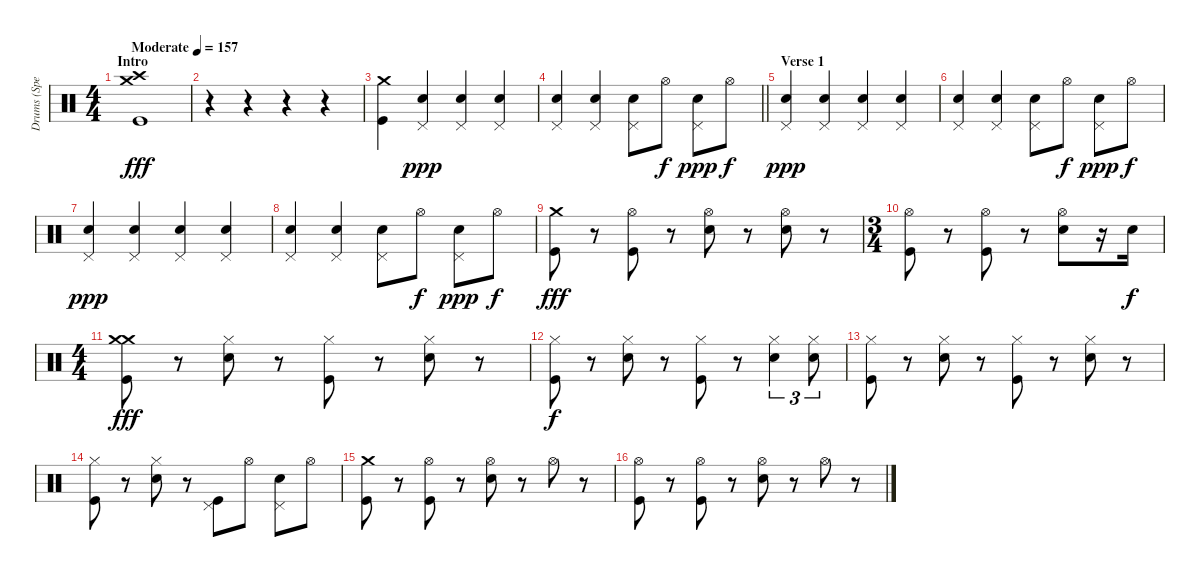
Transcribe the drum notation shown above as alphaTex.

\track ("Drums (Spencer Smith)" "Drums (Spe") {instrument percussion}
\staff {score}
\articulation defaults
\ts (4 4)
\section ("" "Intro")
\tempo (157 "Moderate")
\clef neutral
\ks c
("Crash medium (hit)" "Crash high (hit)" "Kick (hit)").1{dy fff} |
r.4 r.4 r.4 r.4 |
("Crash medium (hit)" "Kick (hit)").4 ("Electric Snare (hit)" "Pedal Hi-Hat (hit)").4{dy ppp} ("Electric Snare (hit)" "Pedal Hi-Hat (hit)").4 ("Electric Snare (hit)" "Pedal Hi-Hat (hit)").4 |
\barLineRight lightlight
("Electric Snare (hit)" "Pedal Hi-Hat (hit)").4 ("Electric Snare (hit)" "Pedal Hi-Hat (hit)").4 ("Electric Snare (hit)" "Pedal Hi-Hat (hit)").8 "Hi-Hat (open)".8{dy f} ("Electric Snare (hit)" "Pedal Hi-Hat (hit)").8{dy ppp} "Hi-Hat (open)".8{dy f} |
\section ("" "Verse 1")
("Electric Snare (hit)" "Pedal Hi-Hat (hit)").4{dy ppp} ("Electric Snare (hit)" "Pedal Hi-Hat (hit)").4 ("Electric Snare (hit)" "Pedal Hi-Hat (hit)").4 ("Electric Snare (hit)" "Pedal Hi-Hat (hit)").4 |
("Electric Snare (hit)" "Pedal Hi-Hat (hit)").4 ("Electric Snare (hit)" "Pedal Hi-Hat (hit)").4 ("Electric Snare (hit)" "Pedal Hi-Hat (hit)").8 "Hi-Hat (open)".8{dy f} ("Electric Snare (hit)" "Pedal Hi-Hat (hit)").8{dy ppp} "Hi-Hat (open)".8{dy f} |
("Electric Snare (hit)" "Pedal Hi-Hat (hit)").4{dy ppp} ("Electric Snare (hit)" "Pedal Hi-Hat (hit)").4 ("Electric Snare (hit)" "Pedal Hi-Hat (hit)").4 ("Electric Snare (hit)" "Pedal Hi-Hat (hit)").4 |
("Electric Snare (hit)" "Pedal Hi-Hat (hit)").4 ("Electric Snare (hit)" "Pedal Hi-Hat (hit)").4 ("Electric Snare (hit)" "Pedal Hi-Hat (hit)").8 "Hi-Hat (open)".8{dy f} ("Electric Snare (hit)" "Pedal Hi-Hat (hit)").8{dy ppp} "Hi-Hat (open)".8{dy f} |
("Crash medium (hit)" "Kick (hit)").8{dy fff} r.8 ("Hi-Hat (open)" "Kick (hit)").8 r.8 ("Hi-Hat (open)" "Electric Snare (hit)").8 r.8 ("Hi-Hat (open)" "Electric Snare (hit)").8 r.8 |
\ts (3 4)
("Hi-Hat (open)" "Kick (hit)").8 r.8 ("Hi-Hat (open)" "Kick (hit)").8 r.8 ("Hi-Hat (open)" "Electric Snare (hit)").8 r.16 "Electric Snare (hit)".16{dy f} |
\ts (4 4)
("Crash medium (hit)" "Crash medium (hit)" "Kick (hit)").8{dy fff} r.8 ("Hi-Hat (closed)" "Electric Snare (hit)").8 r.8 ("Hi-Hat (closed)" "Kick (hit)").8 r.8 ("Hi-Hat (closed)" "Electric Snare (hit)").8 r.8 |
("Hi-Hat (closed)" "Kick (hit)").8{dy f} r.8 ("Hi-Hat (closed)" "Electric Snare (hit)").8 r.8 ("Hi-Hat (closed)" "Kick (hit)").8 r.8 ("Hi-Hat (closed)" "Electric Snare (hit)").4{tu (3 2)} ("Hi-Hat (closed)" "Electric Snare (hit)").8{tu (3 2)} |
("Hi-Hat (closed)" "Kick (hit)").8 r.8 ("Hi-Hat (closed)" "Electric Snare (hit)").8 r.8 ("Hi-Hat (closed)" "Kick (hit)").8 r.8 ("Hi-Hat (closed)" "Electric Snare (hit)").8 r.8 |
("Hi-Hat (closed)" "Kick (hit)").8 r.8 ("Hi-Hat (closed)" "Electric Snare (hit)").8 r.8 ("Kick (hit)" "Pedal Hi-Hat (hit)").8 "Hi-Hat (open)".8 ("Electric Snare (hit)" "Pedal Hi-Hat (hit)").8 "Hi-Hat (open)".8 |
("Crash medium (hit)" "Kick (hit)").8 r.8 ("Hi-Hat (open)" "Kick (hit)").8 r.8 ("Hi-Hat (open)" "Electric Snare (hit)").8 r.8 "Hi-Hat (open)".8 r.8 |
("Hi-Hat (open)" "Kick (hit)").8 r.8 ("Hi-Hat (open)" "Kick (hit)").8 r.8 ("Hi-Hat (open)" "Electric Snare (hit)").8 r.8 "Hi-Hat (open)".8 r.8
